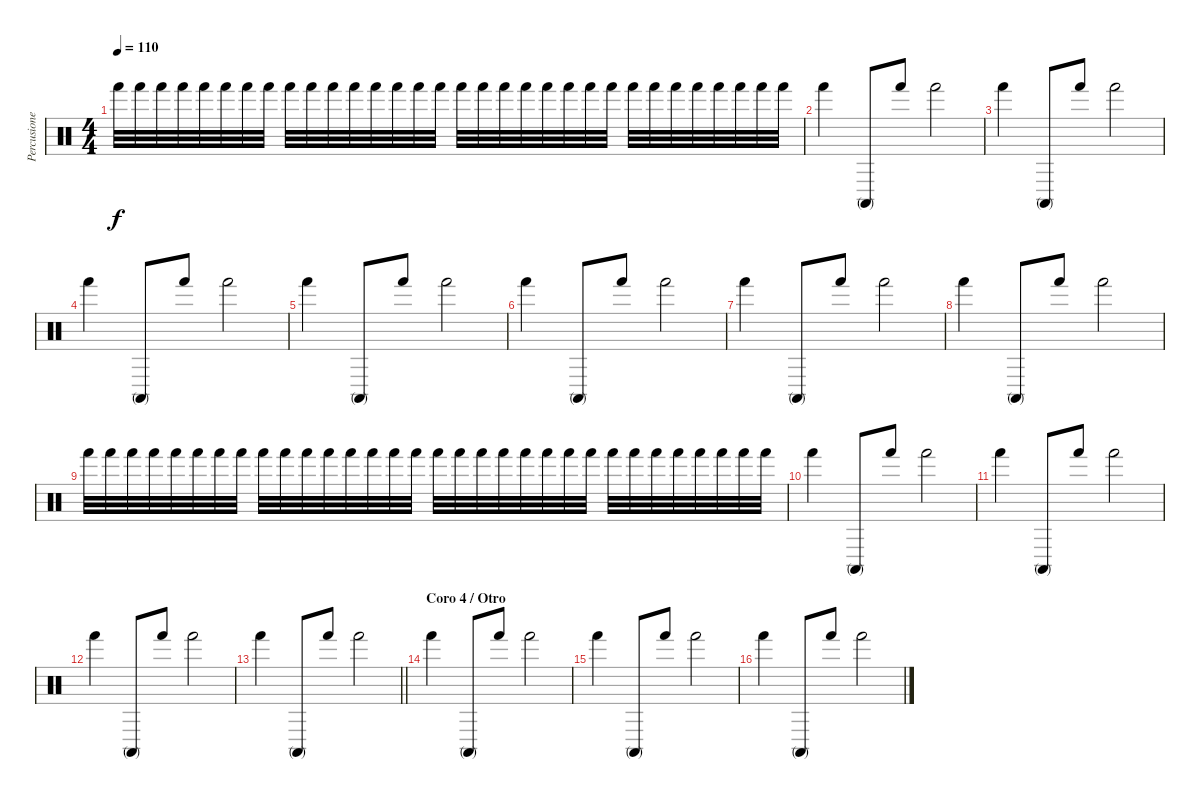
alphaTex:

\track ("Percusiones" "Percusione") {instrument percussion}
\staff {score}
\articulation defaults
\ts (4 4)
\tempo 110
\clef neutral
\ks c "Hand (hit)".32{dy f} "Hand (hit)".32 "Hand (hit)".32 "Hand (hit)".32 "Hand (hit)".32 "Hand (hit)".32 "Hand (hit)".32 "Hand (hit)".32 "Hand (hit)".32 "Hand (hit)".32 "Hand (hit)".32 "Hand (hit)".32 "Hand (hit)".32 "Hand (hit)".32 "Hand (hit)".32 "Hand (hit)".32 "Hand (hit)".32 "Hand (hit)".32 "Hand (hit)".32 "Hand (hit)".32 "Hand (hit)".32 "Hand (hit)".32 "Hand (hit)".32 "Hand (hit)".32 "Hand (hit)".32 "Hand (hit)".32 "Hand (hit)".32 "Hand (hit)".32 "Hand (hit)".32 "Hand (hit)".32 "Hand (hit)".32 "Hand (hit)".32
|
"Hand (hit)".4 "Conga high (mute)".8 "Hand (hit)".8 "Hand (hit)".2 |
"Hand (hit)".4 "Conga high (mute)".8 "Hand (hit)".8 "Hand (hit)".2 |
"Hand (hit)".4 "Conga high (mute)".8 "Hand (hit)".8 "Hand (hit)".2 |
"Hand (hit)".4 "Conga high (mute)".8 "Hand (hit)".8 "Hand (hit)".2 |
"Hand (hit)".4 "Conga high (mute)".8 "Hand (hit)".8 "Hand (hit)".2 |
"Hand (hit)".4 "Conga high (mute)".8 "Hand (hit)".8 "Hand (hit)".2 |
"Hand (hit)".4 "Conga high (mute)".8 "Hand (hit)".8 "Hand (hit)".2 |
"Hand (hit)".32 "Hand (hit)".32 "Hand (hit)".32 "Hand (hit)".32 "Hand (hit)".32 "Hand (hit)".32 "Hand (hit)".32 "Hand (hit)".32 "Hand (hit)".32 "Hand (hit)".32 "Hand (hit)".32 "Hand (hit)".32 "Hand (hit)".32 "Hand (hit)".32 "Hand (hit)".32 "Hand (hit)".32 "Hand (hit)".32 "Hand (hit)".32 "Hand (hit)".32 "Hand (hit)".32 "Hand (hit)".32 "Hand (hit)".32 "Hand (hit)".32 "Hand (hit)".32 "Hand (hit)".32 "Hand (hit)".32 "Hand (hit)".32 "Hand (hit)".32 "Hand (hit)".32 "Hand (hit)".32 "Hand (hit)".32 "Hand (hit)".32 |
"Hand (hit)".4 "Conga high (mute)".8 "Hand (hit)".8 "Hand (hit)".2 |
"Hand (hit)".4 "Conga high (mute)".8 "Hand (hit)".8 "Hand (hit)".2 |
"Hand (hit)".4 "Conga high (mute)".8 "Hand (hit)".8 "Hand (hit)".2 |
\barLineRight lightlight "Hand (hit)".4 "Conga high (mute)".8 "Hand (hit)".8 "Hand (hit)".2
|
\section ("" "Coro 4 / Otro")
"Hand (hit)".4 "Conga high (mute)".8 "Hand (hit)".8 "Hand (hit)".2 |
"Hand (hit)".4 "Conga high (mute)".8 "Hand (hit)".8 "Hand (hit)".2 |
"Hand (hit)".4 "Conga high (mute)".8 "Hand (hit)".8 "Hand (hit)".2
